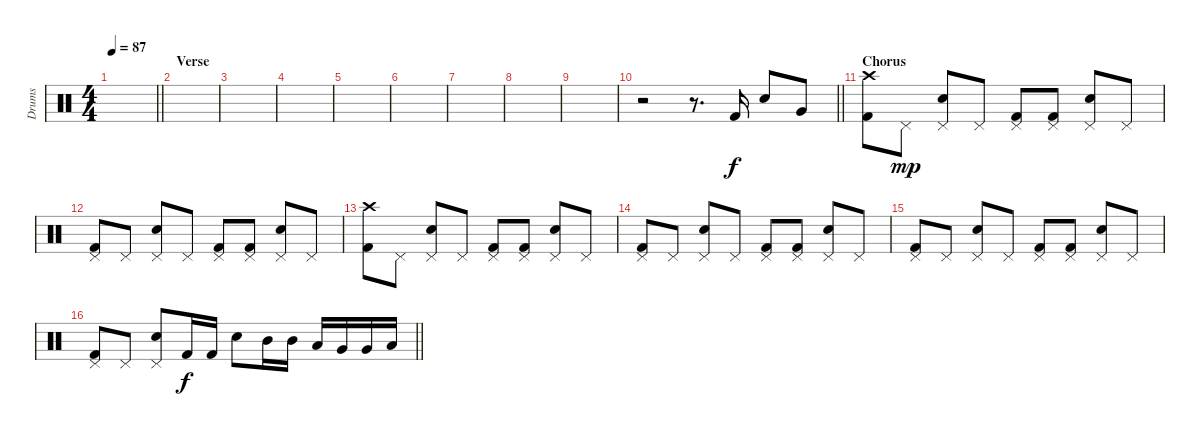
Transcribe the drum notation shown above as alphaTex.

\track ("Drums" "Drums") {instrument percussion}
\staff {score}
\articulation defaults
\ts (4 4)
\tempo 87
\clef neutral
\barLineRight lightlight
\ks c
|
\section ("" "Verse")
|
|
|
|
|
|
|
|
\barLineRight lightlight
r.2 r.8{d} "Kick (hit) 2".16 "Snare (hit) 2".8 "Very Low Tom (hit)".8 |
\section ("" "Chorus")
("Crash high (hit)" "Kick (hit) 2").8 "Pedal Hi-Hat (hit)".8{dy mp} ("Pedal Hi-Hat (hit)" "Snare (hit) 2").8 "Pedal Hi-Hat (hit)".8 ("Pedal Hi-Hat (hit)" "Kick (hit) 2").8 ("Pedal Hi-Hat (hit)" "Kick (hit) 2").8 ("Pedal Hi-Hat (hit)" "Snare (hit) 2").8 "Pedal Hi-Hat (hit)".8 |
("Pedal Hi-Hat (hit)" "Kick (hit) 2").8 "Pedal Hi-Hat (hit)".8 ("Pedal Hi-Hat (hit)" "Snare (hit) 2").8 "Pedal Hi-Hat (hit)".8 ("Pedal Hi-Hat (hit)" "Kick (hit) 2").8 ("Pedal Hi-Hat (hit)" "Kick (hit) 2").8 ("Pedal Hi-Hat (hit)" "Snare (hit) 2").8 "Pedal Hi-Hat (hit)".8 |
("Crash high (hit)" "Kick (hit) 2").8 "Pedal Hi-Hat (hit)".8 ("Pedal Hi-Hat (hit)" "Snare (hit) 2").8 "Pedal Hi-Hat (hit)".8 ("Pedal Hi-Hat (hit)" "Kick (hit) 2").8 ("Pedal Hi-Hat (hit)" "Kick (hit) 2").8 ("Pedal Hi-Hat (hit)" "Snare (hit) 2").8 "Pedal Hi-Hat (hit)".8 |
("Pedal Hi-Hat (hit)" "Kick (hit) 2").8 "Pedal Hi-Hat (hit)".8 ("Pedal Hi-Hat (hit)" "Snare (hit) 2").8 "Pedal Hi-Hat (hit)".8 ("Pedal Hi-Hat (hit)" "Kick (hit) 2").8 ("Pedal Hi-Hat (hit)" "Kick (hit) 2").8 ("Pedal Hi-Hat (hit)" "Snare (hit) 2").8 "Pedal Hi-Hat (hit)".8 |
("Pedal Hi-Hat (hit)" "Kick (hit) 2").8 "Pedal Hi-Hat (hit)".8 ("Pedal Hi-Hat (hit)" "Snare (hit) 2").8 "Pedal Hi-Hat (hit)".8 ("Pedal Hi-Hat (hit)" "Kick (hit) 2").8 ("Pedal Hi-Hat (hit)" "Kick (hit) 2").8 ("Pedal Hi-Hat (hit)" "Snare (hit) 2").8 "Pedal Hi-Hat (hit)".8 |
\barLineRight lightlight
("Pedal Hi-Hat (hit)" "Kick (hit) 2").8 "Pedal Hi-Hat (hit)".8 ("Pedal Hi-Hat (hit)" "Snare (hit) 2").8 "Kick (hit) 2".16{dy f} "Kick (hit) 2".16 "Snare (hit) 2".8 "Mid Tom (hit)".16 "Mid Tom (hit)".16 "Low Tom (hit)".16 "Very Low Tom (hit)".16 "Very Low Tom (hit)".16 "Low Floor Tom (hit)".16
